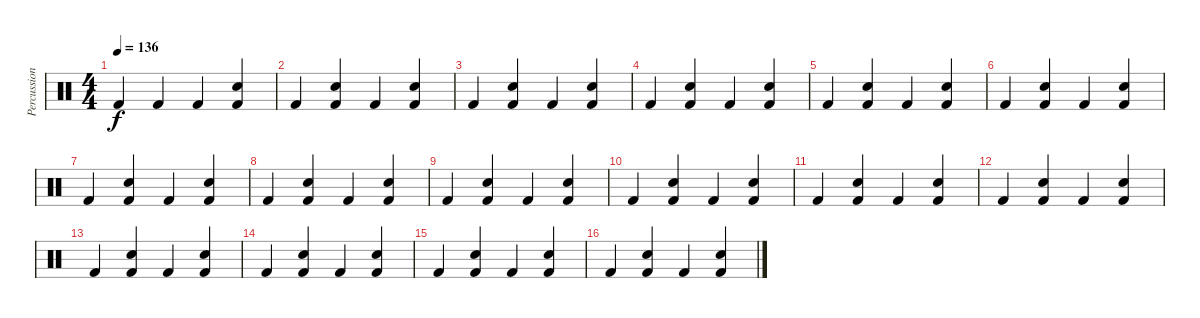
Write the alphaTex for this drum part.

\track ("Percussion" "Percussion") {instrument percussion}
\staff {score}
\articulation defaults
\ts (4 4)
\tempo 136
\clef neutral
\ks c "Kick (hit) 2".4{dy f} "Kick (hit) 2".4 "Kick (hit) 2".4
("Kick (hit) 2" "Snare (hit) 2").4 |
"Kick (hit) 2".4 ("Kick (hit) 2" "Snare (hit) 2").4 "Kick (hit) 2".4 ("Kick (hit) 2" "Snare (hit) 2").4 |
"Kick (hit) 2".4 ("Kick (hit) 2" "Snare (hit) 2").4 "Kick (hit) 2".4 ("Kick (hit) 2" "Snare (hit) 2").4 |
"Kick (hit) 2".4 ("Kick (hit) 2" "Snare (hit) 2").4 "Kick (hit) 2".4 ("Kick (hit) 2" "Snare (hit) 2").4 |
"Kick (hit) 2".4 ("Kick (hit) 2" "Snare (hit) 2").4 "Kick (hit) 2".4 ("Kick (hit) 2" "Snare (hit) 2").4 |
"Kick (hit) 2".4 ("Kick (hit) 2" "Snare (hit) 2").4 "Kick (hit) 2".4 ("Kick (hit) 2" "Snare (hit) 2").4 |
"Kick (hit) 2".4 ("Kick (hit) 2" "Snare (hit) 2").4 "Kick (hit) 2".4 ("Kick (hit) 2" "Snare (hit) 2").4 |
"Kick (hit) 2".4 ("Kick (hit) 2" "Snare (hit) 2").4 "Kick (hit) 2".4 ("Kick (hit) 2" "Snare (hit) 2").4 |
"Kick (hit) 2".4 ("Kick (hit) 2" "Snare (hit) 2").4 "Kick (hit) 2".4 ("Kick (hit) 2" "Snare (hit) 2").4 |
"Kick (hit) 2".4 ("Kick (hit) 2" "Snare (hit) 2").4 "Kick (hit) 2".4 ("Kick (hit) 2" "Snare (hit) 2").4 |
"Kick (hit) 2".4 ("Kick (hit) 2" "Snare (hit) 2").4 "Kick (hit) 2".4 ("Kick (hit) 2" "Snare (hit) 2").4 |
"Kick (hit) 2".4 ("Kick (hit) 2" "Snare (hit) 2").4 "Kick (hit) 2".4 ("Kick (hit) 2" "Snare (hit) 2").4 |
"Kick (hit) 2".4 ("Kick (hit) 2" "Snare (hit) 2").4 "Kick (hit) 2".4 ("Kick (hit) 2" "Snare (hit) 2").4 |
"Kick (hit) 2".4 ("Kick (hit) 2" "Snare (hit) 2").4 "Kick (hit) 2".4 ("Kick (hit) 2" "Snare (hit) 2").4 |
"Kick (hit) 2".4 ("Kick (hit) 2" "Snare (hit) 2").4 "Kick (hit) 2".4 ("Kick (hit) 2" "Snare (hit) 2").4 |
"Kick (hit) 2".4 ("Kick (hit) 2" "Snare (hit) 2").4 "Kick (hit) 2".4 ("Kick (hit) 2" "Snare (hit) 2").4
